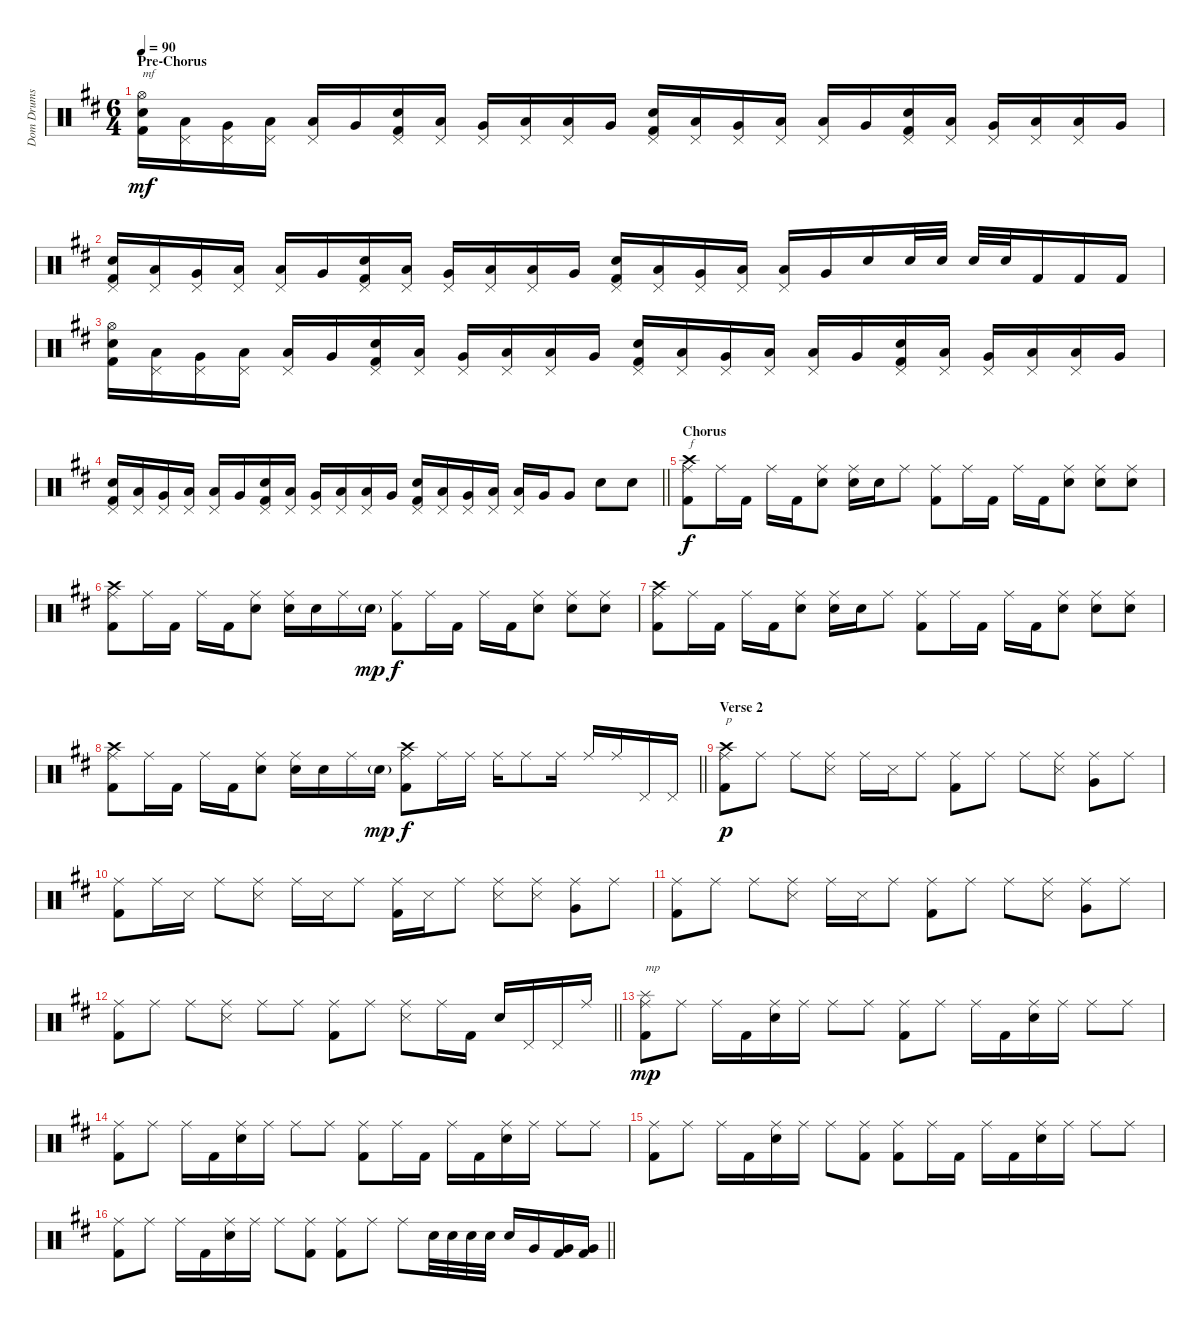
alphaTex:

\track ("Dom Drums" "Dom Drums") {instrument percussion}
\staff {score}
\articulation defaults
\ts (6 4)
\section ("" "Pre-Chorus")
\tempo 90
\clef neutral
\ks bminor
("Hi-Hat (open)" "Electric Snare (hit)" "Kick (hit) 2").16{txt "mf" dy mf} ("Pedal Hi-Hat (hit)" "Low Floor Tom (hit)").16 ("Pedal Hi-Hat (hit)" "Very Low Tom (hit)").16 ("Pedal Hi-Hat (hit)" "Low Tom (hit)").16 ("Pedal Hi-Hat (hit)" "Low Floor Tom (hit)").16 "Very Low Tom (hit)".16 ("Pedal Hi-Hat (hit)" "Electric Snare (hit)" "Kick (hit) 2").16 ("Pedal Hi-Hat (hit)" "Low Floor Tom (hit)").16 ("Pedal Hi-Hat (hit)" "Very Low Tom (hit)").16 ("Pedal Hi-Hat (hit)" "Low Tom (hit)").16 ("Pedal Hi-Hat (hit)" "Low Floor Tom (hit)").16 "Very Low Tom (hit)".16 ("Pedal Hi-Hat (hit)" "Electric Snare (hit)" "Kick (hit) 2").16 ("Pedal Hi-Hat (hit)" "Low Floor Tom (hit)").16 ("Pedal Hi-Hat (hit)" "Very Low Tom (hit)").16 ("Pedal Hi-Hat (hit)" "Low Tom (hit)").16 ("Pedal Hi-Hat (hit)" "Low Floor Tom (hit)").16 "Very Low Tom (hit)".16 ("Pedal Hi-Hat (hit)" "Electric Snare (hit)" "Kick (hit) 2").16 ("Pedal Hi-Hat (hit)" "Low Floor Tom (hit)").16 ("Pedal Hi-Hat (hit)" "Very Low Tom (hit)").16 ("Pedal Hi-Hat (hit)" "Low Tom (hit)").16 ("Pedal Hi-Hat (hit)" "Low Floor Tom (hit)").16 "Very Low Tom (hit)".16 |
("Pedal Hi-Hat (hit)" "Electric Snare (hit)" "Kick (hit) 2").16 ("Pedal Hi-Hat (hit)" "Low Floor Tom (hit)").16 ("Pedal Hi-Hat (hit)" "Very Low Tom (hit)").16 ("Pedal Hi-Hat (hit)" "Low Tom (hit)").16 ("Pedal Hi-Hat (hit)" "Low Floor Tom (hit)").16 "Very Low Tom (hit)".16 ("Pedal Hi-Hat (hit)" "Electric Snare (hit)" "Kick (hit) 2").16 ("Pedal Hi-Hat (hit)" "Low Floor Tom (hit)").16 ("Pedal Hi-Hat (hit)" "Very Low Tom (hit)").16 ("Pedal Hi-Hat (hit)" "Low Tom (hit)").16 ("Pedal Hi-Hat (hit)" "Low Floor Tom (hit)").16 "Very Low Tom (hit)".16 ("Pedal Hi-Hat (hit)" "Electric Snare (hit)" "Kick (hit) 2").16 ("Pedal Hi-Hat (hit)" "Low Floor Tom (hit)").16 ("Pedal Hi-Hat (hit)" "Very Low Tom (hit)").16 ("Pedal Hi-Hat (hit)" "Low Tom (hit)").16 ("Pedal Hi-Hat (hit)" "Low Floor Tom (hit)").16 "Very Low Tom (hit)".16 "Electric Snare (hit)".16 "Electric Snare (hit)".32 "Electric Snare (hit)".32 "Electric Snare (hit)".32 "Electric Snare (hit)".32 "Kick (hit) 2".16 "Kick (hit) 2".16 "Kick (hit) 2".16 |
("Hi-Hat (open)" "Electric Snare (hit)" "Kick (hit) 2").16 ("Pedal Hi-Hat (hit)" "Low Floor Tom (hit)").16 ("Pedal Hi-Hat (hit)" "Very Low Tom (hit)").16 ("Pedal Hi-Hat (hit)" "Low Tom (hit)").16 ("Pedal Hi-Hat (hit)" "Low Floor Tom (hit)").16 "Very Low Tom (hit)".16 ("Pedal Hi-Hat (hit)" "Electric Snare (hit)" "Kick (hit) 2").16 ("Pedal Hi-Hat (hit)" "Low Floor Tom (hit)").16 ("Pedal Hi-Hat (hit)" "Very Low Tom (hit)").16 ("Pedal Hi-Hat (hit)" "Low Tom (hit)").16 ("Pedal Hi-Hat (hit)" "Low Floor Tom (hit)").16 "Very Low Tom (hit)".16 ("Pedal Hi-Hat (hit)" "Electric Snare (hit)" "Kick (hit) 2").16 ("Pedal Hi-Hat (hit)" "Low Floor Tom (hit)").16 ("Pedal Hi-Hat (hit)" "Very Low Tom (hit)").16 ("Pedal Hi-Hat (hit)" "Low Tom (hit)").16 ("Pedal Hi-Hat (hit)" "Low Floor Tom (hit)").16 "Very Low Tom (hit)".16 ("Pedal Hi-Hat (hit)" "Electric Snare (hit)" "Kick (hit) 2").16 ("Pedal Hi-Hat (hit)" "Low Floor Tom (hit)").16 ("Pedal Hi-Hat (hit)" "Very Low Tom (hit)").16 ("Pedal Hi-Hat (hit)" "Low Tom (hit)").16 ("Pedal Hi-Hat (hit)" "Low Floor Tom (hit)").16 "Very Low Tom (hit)".16 |
\barLineRight lightlight
("Pedal Hi-Hat (hit)" "Electric Snare (hit)" "Kick (hit) 2").16 ("Pedal Hi-Hat (hit)" "Low Floor Tom (hit)").16 ("Pedal Hi-Hat (hit)" "Very Low Tom (hit)").16 ("Pedal Hi-Hat (hit)" "Low Tom (hit)").16 ("Pedal Hi-Hat (hit)" "Low Floor Tom (hit)").16 "Very Low Tom (hit)".16 ("Pedal Hi-Hat (hit)" "Electric Snare (hit)" "Kick (hit) 2").16 ("Pedal Hi-Hat (hit)" "Low Floor Tom (hit)").16 ("Pedal Hi-Hat (hit)" "Very Low Tom (hit)").16 ("Pedal Hi-Hat (hit)" "Low Tom (hit)").16 ("Pedal Hi-Hat (hit)" "Low Floor Tom (hit)").16 "Very Low Tom (hit)".16 ("Pedal Hi-Hat (hit)" "Electric Snare (hit)" "Kick (hit) 2").16 ("Pedal Hi-Hat (hit)" "Low Floor Tom (hit)").16 ("Pedal Hi-Hat (hit)" "Very Low Tom (hit)").16 ("Pedal Hi-Hat (hit)" "Low Tom (hit)").16 ("Pedal Hi-Hat (hit)" "Low Floor Tom (hit)").16 "Very Low Tom (hit)".16 "Very Low Tom (hit)".8 "Electric Snare (hit)".8 "Electric Snare (hit)".8 |
\section ("" "Chorus")
("Crash high (hit)" "Ride (middle)" "Kick (hit) 2").8{txt "f" dy f} "Ride (middle)".16 "Kick (hit) 2".16 "Ride (middle)".16 "Kick (hit) 2".16 ("Ride (middle)" "Electric Snare (hit)").8 ("Ride (middle)" "Electric Snare (hit)").16 "Electric Snare (hit)".16 "Ride (middle)".8 ("Ride (middle)" "Kick (hit) 2").8 "Ride (middle)".16 "Kick (hit) 2".16 "Ride (middle)".16 "Kick (hit) 2".16 ("Ride (middle)" "Electric Snare (hit)").8 ("Ride (middle)" "Electric Snare (hit)").8 ("Ride (middle)" "Electric Snare (hit)").8 |
("Crash high (hit)" "Ride (middle)" "Kick (hit) 2").8 "Ride (middle)".16 "Kick (hit) 2".16 "Ride (middle)".16 "Kick (hit) 2".16 ("Ride (middle)" "Electric Snare (hit)").8 ("Ride (middle)" "Electric Snare (hit)").16 "Electric Snare (hit)".16 "Ride (middle)".16 "Electric Snare (hit)"{g}.16{dy mp} ("Ride (middle)" "Kick (hit) 2").8{dy f} "Ride (middle)".16 "Kick (hit) 2".16 "Ride (middle)".16 "Kick (hit) 2".16 ("Ride (middle)" "Electric Snare (hit)").8 ("Ride (middle)" "Electric Snare (hit)").8 ("Ride (middle)" "Electric Snare (hit)").8 |
("Crash high (hit)" "Ride (middle)" "Kick (hit) 2").8 "Ride (middle)".16 "Kick (hit) 2".16 "Ride (middle)".16 "Kick (hit) 2".16 ("Ride (middle)" "Electric Snare (hit)").8 ("Ride (middle)" "Electric Snare (hit)").16 "Electric Snare (hit)".16 "Ride (middle)".8 ("Ride (middle)" "Kick (hit) 2").8 "Ride (middle)".16 "Kick (hit) 2".16 "Ride (middle)".16 "Kick (hit) 2".16 ("Ride (middle)" "Electric Snare (hit)").8 ("Ride (middle)" "Electric Snare (hit)").8 ("Ride (middle)" "Electric Snare (hit)").8 |
\barLineRight lightlight
("Crash high (hit)" "Ride (middle)" "Kick (hit) 2").8 "Ride (middle)".16 "Kick (hit) 2".16 "Ride (middle)".16 "Kick (hit) 2".16 ("Ride (middle)" "Electric Snare (hit)").8 ("Ride (middle)" "Electric Snare (hit)").16 "Electric Snare (hit)".16 "Ride (middle)".16 "Electric Snare (hit)"{g}.16{dy mp} ("Crash high (hit)" "Ride (middle)" "Kick (hit) 2").8{dy f} "Ride (middle)".16 "Ride (middle)".16 "Ride (middle)".16 "Ride (middle)".8 "Ride (middle)".16 "Ride (middle)".16 "Ride (middle)".16 "Pedal Hi-Hat (hit)".16 "Pedal Hi-Hat (hit)".16 |
\section ("" "Verse 2")
("Crash high (hit)" "Ride (middle)" "Kick (hit) 2").8{txt "p" dy p} "Ride (middle)".8 "Ride (middle)".8 ("Ride (middle)" "Snare (side stick) 3").8 "Ride (middle)".16 "Snare (side stick) 3".16 "Ride (middle)".8 ("Ride (middle)" "Kick (hit) 2").8 "Ride (middle)".8 "Ride (middle)".8 ("Ride (middle)" "Snare (side stick) 3").8 ("Ride (middle)" "Very Low Tom (hit)").8 "Ride (middle)".8 |
("Ride (middle)" "Kick (hit) 2").8 "Ride (middle)".16 "Snare (side stick) 3".16 "Ride (middle)".8 ("Ride (middle)" "Snare (side stick) 3").8 "Ride (middle)".16 "Snare (side stick) 3".16 "Ride (middle)".8 ("Ride (middle)" "Kick (hit) 2").16 "Snare (side stick) 3".16 "Ride (middle)".8 ("Ride (middle)" "Snare (side stick) 3").8 ("Ride (middle)" "Snare (side stick) 3").8 ("Ride (middle)" "Very Low Tom (hit)").8 "Ride (middle)".8 |
("Ride (middle)" "Kick (hit) 2").8 "Ride (middle)".8 "Ride (middle)".8 ("Ride (middle)" "Snare (side stick) 3").8 "Ride (middle)".16 "Snare (side stick) 3".16 "Ride (middle)".8 ("Ride (middle)" "Kick (hit) 2").8 "Ride (middle)".8 "Ride (middle)".8 ("Ride (middle)" "Snare (side stick) 3").8 ("Ride (middle)" "Very Low Tom (hit)").8 "Ride (middle)".8 |
\barLineRight lightlight
("Ride (middle)" "Kick (hit) 2").8 "Ride (middle)".8 "Ride (middle)".8 ("Ride (middle)" "Snare (side stick) 3").8 "Ride (middle)".8 "Ride (middle)".8 ("Ride (middle)" "Kick (hit) 2").8 "Ride (middle)".8 ("Ride (middle)" "Snare (side stick) 3").8 "Ride (middle)".16 "Kick (hit) 2".16 "Electric Snare (hit)".16 "Pedal Hi-Hat (hit)".16 "Pedal Hi-Hat (hit)".16 "Ride (middle)".16 |
\section ("" "")
("Splash (hit)" "Ride (middle)" "Kick (hit) 2").8{txt "mp" dy mp} "Ride (middle)".8 "Ride (middle)".16 "Kick (hit) 2".16 ("Ride (middle)" "Electric Snare (hit)").16 "Ride (middle)".16 "Ride (middle)".8 "Ride (middle)".8 ("Ride (middle)" "Kick (hit) 2").8 "Ride (middle)".8 "Ride (middle)".16 "Kick (hit) 2".16 ("Ride (middle)" "Electric Snare (hit)").16 "Ride (middle)".16 "Ride (middle)".8 "Ride (middle)".8 |
("Ride (middle)" "Kick (hit) 2").8 "Ride (middle)".8 "Ride (middle)".16 "Kick (hit) 2".16 ("Ride (middle)" "Electric Snare (hit)").16 "Ride (middle)".16 "Ride (middle)".8 "Ride (middle)".8 ("Ride (middle)" "Kick (hit) 2").8 "Ride (middle)".16 "Kick (hit) 2".16 "Ride (middle)".16 "Kick (hit) 2".16 ("Ride (middle)" "Electric Snare (hit)").16 "Ride (middle)".16 "Ride (middle)".8 "Ride (middle)".8 |
("Ride (middle)" "Kick (hit) 2").8 "Ride (middle)".8 "Ride (middle)".16 "Kick (hit) 2".16 ("Ride (middle)" "Electric Snare (hit)").16 "Ride (middle)".16 "Ride (middle)".8 ("Ride (middle)" "Kick (hit) 2").8 ("Ride (middle)" "Kick (hit) 2").8 "Ride (middle)".16 "Kick (hit) 2".16 "Ride (middle)".16 "Kick (hit) 2".16 ("Ride (middle)" "Electric Snare (hit)").16 "Ride (middle)".16 "Ride (middle)".8 "Ride (middle)".8 |
\barLineRight lightlight
("Ride (middle)" "Kick (hit) 2").8 "Ride (middle)".8 "Ride (middle)".16 "Kick (hit) 2".16 ("Ride (middle)" "Electric Snare (hit)").16 "Ride (middle)".16 "Ride (middle)".8 ("Ride (middle)" "Kick (hit) 2").8 ("Ride (middle)" "Kick (hit) 2").8 "Ride (middle)".8 "Ride (middle)".8 "Electric Snare (hit)".32 "Electric Snare (hit)".32 "Electric Snare (hit)".32 "Electric Snare (hit)".32 "Electric Snare (hit)".16 "Very Low Tom (hit)".16 ("Very Low Tom (hit)" "Kick (hit) 2").16 ("Very Low Tom (hit)" "Kick (hit) 2").16
